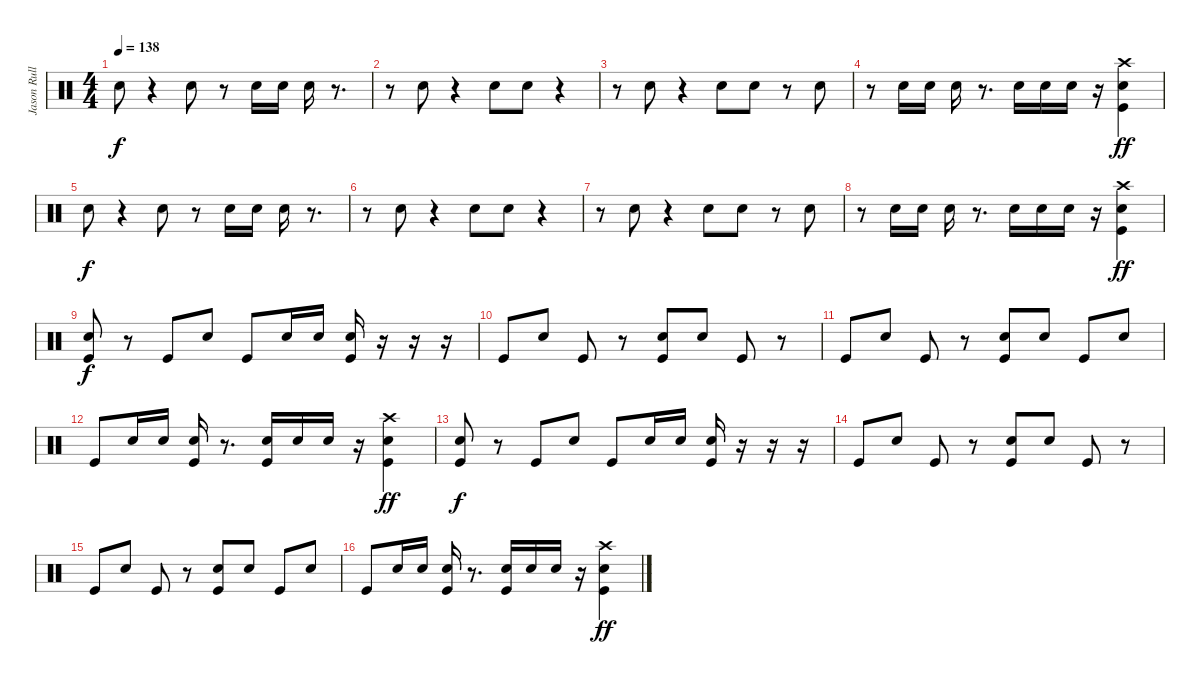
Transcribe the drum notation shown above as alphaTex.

\track ("Jason Rullo" "Jason Rull") {instrument percussion}
\staff {score}
\articulation defaults
\ts (4 4)
\tempo 138
\clef neutral
\ks c "Snare (hit) 2".8{dy f}
r.4 "Snare (hit) 2".8 r.8 "Snare (hit) 2".16 "Snare (hit) 2".16 "Snare (hit) 2".16 r.8{d} |
r.8 "Snare (hit) 2".8 r.4 "Snare (hit) 2".8 "Snare (hit) 2".8 r.4 |
r.8 "Snare (hit) 2".8 r.4 "Snare (hit) 2".8 "Snare (hit) 2".8 r.8 "Snare (hit) 2".8 |
r.8 "Snare (hit) 2".16 "Snare (hit) 2".16 "Snare (hit) 2".16 r.8{d} "Snare (hit) 2".16 "Snare (hit) 2".16 "Snare (hit) 2".16 r.16 ("Kick (hit)" "Snare (hit) 2" "Crash high (hit)").4{dy ff} |
"Snare (hit) 2".8{dy f} r.4 "Snare (hit) 2".8 r.8 "Snare (hit) 2".16 "Snare (hit) 2".16 "Snare (hit) 2".16 r.8{d} |
r.8 "Snare (hit) 2".8 r.4 "Snare (hit) 2".8 "Snare (hit) 2".8 r.4 |
r.8 "Snare (hit) 2".8 r.4 "Snare (hit) 2".8 "Snare (hit) 2".8 r.8 "Snare (hit) 2".8 |
r.8 "Snare (hit) 2".16 "Snare (hit) 2".16 "Snare (hit) 2".16 r.8{d} "Snare (hit) 2".16 "Snare (hit) 2".16 "Snare (hit) 2".16 r.16 ("Kick (hit)" "Snare (hit) 2" "Crash high (hit)").4{dy ff} |
("Kick (hit)" "Snare (hit) 2").8{dy f} r.8 "Kick (hit)".8 "Snare (hit) 2".8 "Kick (hit)".8 "Snare (hit) 2".16 "Snare (hit) 2".16 ("Kick (hit)" "Snare (hit) 2").16 r.16 r.16 r.16 |
"Kick (hit)".8 "Snare (hit) 2".8 "Kick (hit)".8 r.8 ("Kick (hit)" "Snare (hit) 2").8 "Snare (hit) 2".8 "Kick (hit)".8 r.8 |
"Kick (hit)".8 "Snare (hit) 2".8 "Kick (hit)".8 r.8 ("Kick (hit)" "Snare (hit) 2").8 "Snare (hit) 2".8 "Kick (hit)".8 "Snare (hit) 2".8 |
"Kick (hit)".8 "Snare (hit) 2".16 "Snare (hit) 2".16 ("Kick (hit)" "Snare (hit) 2").16 r.8{d} ("Kick (hit)" "Snare (hit) 2").16 "Snare (hit) 2".16 "Snare (hit) 2".16 r.16 ("Kick (hit)" "Snare (hit) 2" "Crash high (hit)").4{dy ff} |
("Kick (hit)" "Snare (hit) 2").8{dy f} r.8 "Kick (hit)".8 "Snare (hit) 2".8 "Kick (hit)".8 "Snare (hit) 2".16 "Snare (hit) 2".16 ("Kick (hit)" "Snare (hit) 2").16 r.16 r.16 r.16 |
"Kick (hit)".8 "Snare (hit) 2".8 "Kick (hit)".8 r.8 ("Kick (hit)" "Snare (hit) 2").8 "Snare (hit) 2".8 "Kick (hit)".8 r.8 |
"Kick (hit)".8 "Snare (hit) 2".8 "Kick (hit)".8 r.8 ("Kick (hit)" "Snare (hit) 2").8 "Snare (hit) 2".8 "Kick (hit)".8 "Snare (hit) 2".8 |
"Kick (hit)".8 "Snare (hit) 2".16 "Snare (hit) 2".16 ("Kick (hit)" "Snare (hit) 2").16 r.8{d} ("Kick (hit)" "Snare (hit) 2").16 "Snare (hit) 2".16 "Snare (hit) 2".16 r.16 ("Kick (hit)" "Snare (hit) 2" "Crash high (hit)").4{dy ff}
